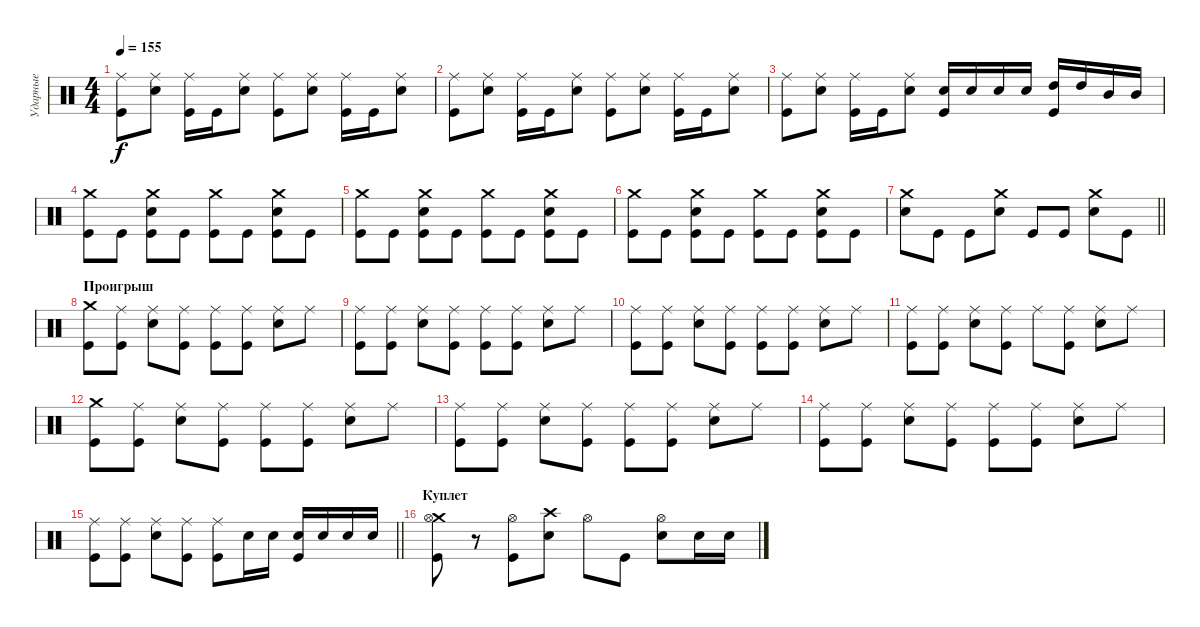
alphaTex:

\track ("Ударные" "Ударные") {instrument percussion}
\staff {score}
\articulation defaults
\ts (4 4)
\tempo 155
\clef neutral
\ks c
("Ride (middle)" "Kick (hit)").8{dy f} ("Ride (middle)" "Electric Snare (hit)").8 ("Ride (middle)" "Kick (hit)").16 "Kick (hit)".16 ("Ride (middle)" "Electric Snare (hit)").8 ("Ride (middle)" "Kick (hit)").8 ("Ride (middle)" "Electric Snare (hit)").8 ("Ride (middle)" "Kick (hit)").16 "Kick (hit)".16 ("Ride (middle)" "Electric Snare (hit)").8 |
("Ride (middle)" "Kick (hit)").8 ("Ride (middle)" "Electric Snare (hit)").8 ("Ride (middle)" "Kick (hit)").16 "Kick (hit)".16 ("Ride (middle)" "Electric Snare (hit)").8 ("Ride (middle)" "Kick (hit)").8 ("Ride (middle)" "Electric Snare (hit)").8 ("Ride (middle)" "Kick (hit)").16 "Kick (hit)".16 ("Ride (middle)" "Electric Snare (hit)").8 |
("Ride (middle)" "Kick (hit)").8 ("Ride (middle)" "Electric Snare (hit)").8 ("Ride (middle)" "Kick (hit)").16 "Kick (hit)".16 ("Ride (middle)" "Electric Snare (hit)").8 ("Electric Snare (hit)" "Kick (hit)").16 "Electric Snare (hit)".16 "Electric Snare (hit)".16 "Electric Snare (hit)".16 ("High Tom (hit)" "Kick (hit)").16 "High Tom (hit)".16 "Mid Tom (hit)".16 "Mid Tom (hit)".16 |
("Crash medium (hit)" "Kick (hit)").8 "Kick (hit)".8 ("Crash medium (hit)" "Electric Snare (hit)" "Kick (hit)").8 "Kick (hit)".8 ("Crash medium (hit)" "Kick (hit)").8 "Kick (hit)".8 ("Crash medium (hit)" "Electric Snare (hit)" "Kick (hit)").8 "Kick (hit)".8 |
("Crash medium (hit)" "Kick (hit)").8 "Kick (hit)".8 ("Crash medium (hit)" "Electric Snare (hit)" "Kick (hit)").8 "Kick (hit)".8 ("Crash medium (hit)" "Kick (hit)").8 "Kick (hit)".8 ("Crash medium (hit)" "Electric Snare (hit)" "Kick (hit)").8 "Kick (hit)".8 |
("Crash medium (hit)" "Kick (hit)").8 "Kick (hit)".8 ("Crash medium (hit)" "Electric Snare (hit)" "Kick (hit)").8 "Kick (hit)".8 ("Crash medium (hit)" "Kick (hit)").8 "Kick (hit)".8 ("Crash medium (hit)" "Electric Snare (hit)" "Kick (hit)").8 "Kick (hit)".8 |
\barLineRight lightlight
("Crash medium (hit)" "Electric Snare (hit)").8 "Kick (hit)".8 "Kick (hit)".8 ("Crash medium (hit)" "Electric Snare (hit)").8 "Kick (hit)".8 "Kick (hit)".8 ("Crash medium (hit)" "Electric Snare (hit)").8 "Kick (hit)".8 |
\section ("" "Проигрыш")
("Crash medium (hit)" "Kick (hit)").8 ("Ride (middle)" "Kick (hit)").8 ("Ride (middle)" "Electric Snare (hit)").8 ("Ride (middle)" "Kick (hit)").8 ("Ride (middle)" "Kick (hit)").8 ("Ride (middle)" "Kick (hit)").8 ("Ride (middle)" "Electric Snare (hit)").8 "Ride (middle)".8 |
("Ride (middle)" "Kick (hit)").8 ("Ride (middle)" "Kick (hit)").8 ("Ride (middle)" "Electric Snare (hit)").8 ("Ride (middle)" "Kick (hit)").8 ("Ride (middle)" "Kick (hit)").8 ("Ride (middle)" "Kick (hit)").8 ("Ride (middle)" "Electric Snare (hit)").8 "Ride (middle)".8 |
("Ride (middle)" "Kick (hit)").8 ("Ride (middle)" "Kick (hit)").8 ("Ride (middle)" "Electric Snare (hit)").8 ("Ride (middle)" "Kick (hit)").8 ("Ride (middle)" "Kick (hit)").8 ("Ride (middle)" "Kick (hit)").8 ("Ride (middle)" "Electric Snare (hit)").8 "Ride (middle)".8 |
("Ride (middle)" "Kick (hit)").8 ("Ride (middle)" "Kick (hit)").8 ("Ride (middle)" "Electric Snare (hit)").8 ("Ride (middle)" "Kick (hit)").8 "Ride (middle)".8 ("Ride (middle)" "Kick (hit)").8 ("Ride (middle)" "Electric Snare (hit)").8 "Ride (middle)".8 |
("Crash medium (hit)" "Kick (hit)").8 ("Ride (middle)" "Kick (hit)").8 ("Ride (middle)" "Electric Snare (hit)").8 ("Ride (middle)" "Kick (hit)").8 ("Ride (middle)" "Kick (hit)").8 ("Ride (middle)" "Kick (hit)").8 ("Ride (middle)" "Electric Snare (hit)").8 "Ride (middle)".8 |
("Ride (middle)" "Kick (hit)").8 ("Ride (middle)" "Kick (hit)").8 ("Ride (middle)" "Electric Snare (hit)").8 ("Ride (middle)" "Kick (hit)").8 ("Ride (middle)" "Kick (hit)").8 ("Ride (middle)" "Kick (hit)").8 ("Ride (middle)" "Electric Snare (hit)").8 "Ride (middle)".8 |
("Ride (middle)" "Kick (hit)").8 ("Ride (middle)" "Kick (hit)").8 ("Ride (middle)" "Electric Snare (hit)").8 ("Ride (middle)" "Kick (hit)").8 ("Ride (middle)" "Kick (hit)").8 ("Ride (middle)" "Kick (hit)").8 ("Ride (middle)" "Electric Snare (hit)").8 "Ride (middle)".8 |
\barLineRight lightlight
("Ride (middle)" "Kick (hit)").8 ("Ride (middle)" "Kick (hit)").8 ("Ride (middle)" "Electric Snare (hit)").8 ("Ride (middle)" "Kick (hit)").8 ("Ride (middle)" "Kick (hit)").8 "Electric Snare (hit)".16 "Electric Snare (hit)".16 ("Electric Snare (hit)" "Kick (hit)").16 "Electric Snare (hit)".16 "Electric Snare (hit)".16 "Electric Snare (hit)".16 |
\section ("" "Куплет")
("Crash medium (hit)" "Hi-Hat (open)" "Kick (hit)").8 r.8 ("Hi-Hat (open)" "Kick (hit)").8 ("Crash high (hit)" "Electric Snare (hit)").8 "Hi-Hat (open)".8 "Kick (hit)".8 ("Hi-Hat (open)" "Electric Snare (hit)").8 "Electric Snare (hit)".16 "Electric Snare (hit)".16
